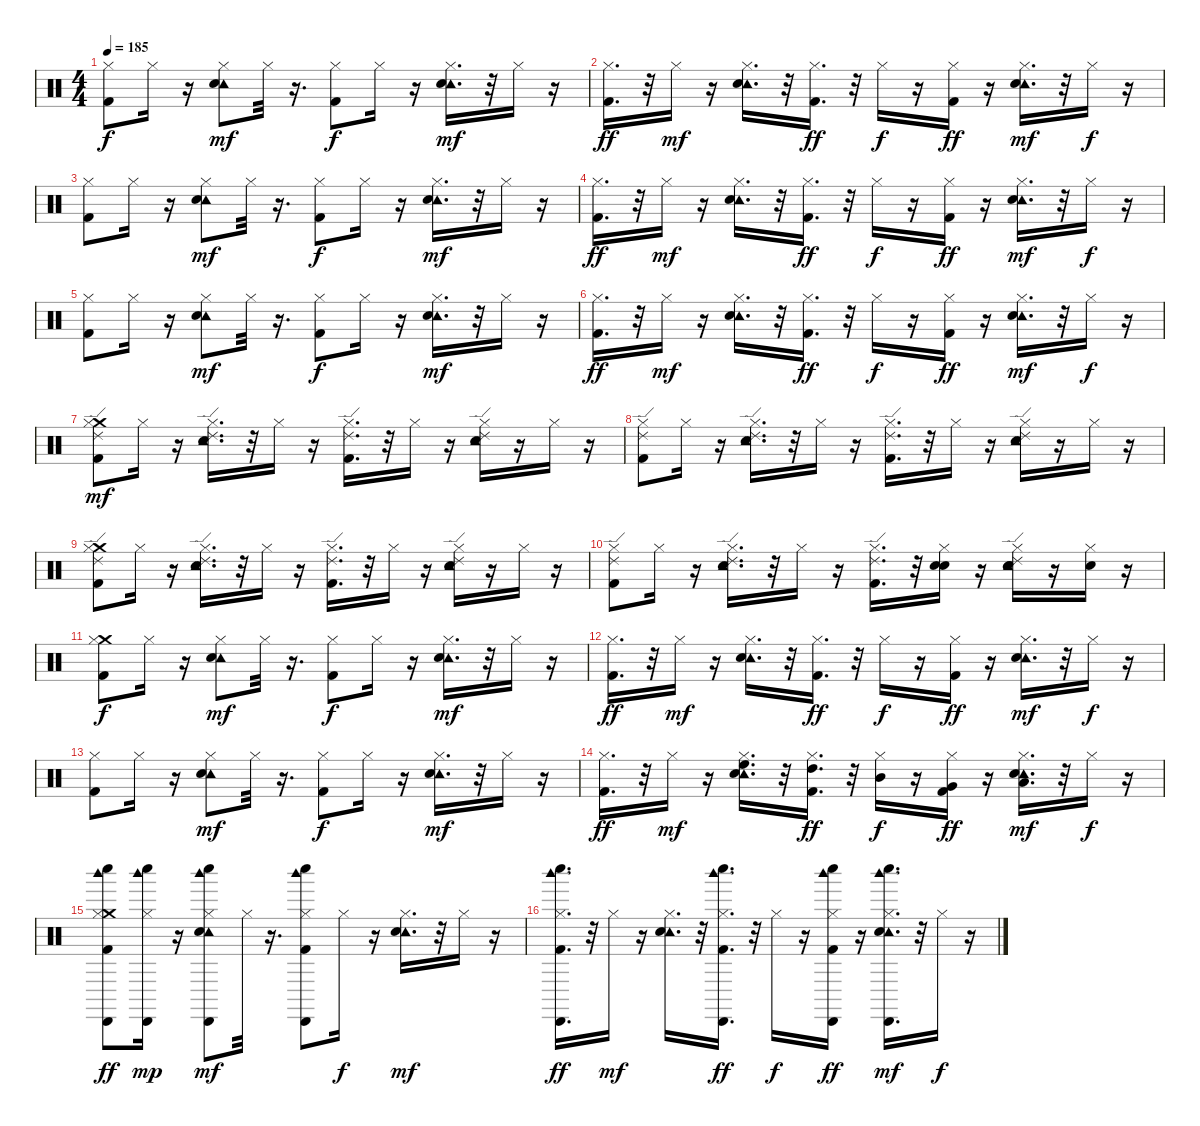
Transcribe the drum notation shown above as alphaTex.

\track "" {instrument percussion}
\staff {score}
\articulation defaults
\ts (4 4)
\tempo 185
\clef neutral
\ks c
("Hi-Hat (closed)" "Kick (hit) 2").8{dy f} "Hi-Hat (closed)".16 r.16 ("Tambourine (hit)" "Hi-Hat (closed)" "Snare (hit) 2").8{dy mf} "Hi-Hat (closed)".32 r.16{d} ("Hi-Hat (closed)" "Kick (hit) 2").8{dy f} "Hi-Hat (closed)".16 r.16 ("Tambourine (hit)" "Hi-Hat (closed)" "Snare (hit) 2").16{d dy mf} r.32 "Hi-Hat (closed)".16 r.16 |
("Hi-Hat (closed)" "Kick (hit) 2").16{d dy ff} r.32 "Hi-Hat (closed)".16{dy mf} r.16 ("Tambourine (hit)" "Hi-Hat (closed)" "Snare (hit) 2").16{d} r.32 ("Hi-Hat (closed)" "Kick (hit) 2").16{d dy ff} r.32 "Hi-Hat (closed)".16{dy f} r.16 ("Hi-Hat (closed)" "Kick (hit) 2").16{dy ff} r.16 ("Tambourine (hit)" "Hi-Hat (closed)" "Snare (hit) 2").16{d dy mf} r.32 "Hi-Hat (closed)".16{dy f} r.16 |
("Hi-Hat (closed)" "Kick (hit) 2").8 "Hi-Hat (closed)".16 r.16 ("Tambourine (hit)" "Hi-Hat (closed)" "Snare (hit) 2").8{dy mf} "Hi-Hat (closed)".32 r.16{d} ("Hi-Hat (closed)" "Kick (hit) 2").8{dy f} "Hi-Hat (closed)".16 r.16 ("Tambourine (hit)" "Hi-Hat (closed)" "Snare (hit) 2").16{d dy mf} r.32 "Hi-Hat (closed)".16 r.16 |
("Hi-Hat (closed)" "Kick (hit) 2").16{d dy ff} r.32 "Hi-Hat (closed)".16{dy mf} r.16 ("Tambourine (hit)" "Hi-Hat (closed)" "Snare (hit) 2").16{d} r.32 ("Hi-Hat (closed)" "Kick (hit) 2").16{d dy ff} r.32 "Hi-Hat (closed)".16{dy f} r.16 ("Hi-Hat (closed)" "Kick (hit) 2").16{dy ff} r.16 ("Tambourine (hit)" "Hi-Hat (closed)" "Snare (hit) 2").16{d dy mf} r.32 "Hi-Hat (closed)".16{dy f} r.16 |
("Hi-Hat (closed)" "Kick (hit) 2").8 "Hi-Hat (closed)".16 r.16 ("Tambourine (hit)" "Hi-Hat (closed)" "Snare (hit) 2").8{dy mf} "Hi-Hat (closed)".32 r.16{d} ("Hi-Hat (closed)" "Kick (hit) 2").8{dy f} "Hi-Hat (closed)".16 r.16 ("Tambourine (hit)" "Hi-Hat (closed)" "Snare (hit) 2").16{d dy mf} r.32 "Hi-Hat (closed)".16 r.16 |
("Hi-Hat (closed)" "Kick (hit) 2").16{d dy ff} r.32 "Hi-Hat (closed)".16{dy mf} r.16 ("Tambourine (hit)" "Hi-Hat (closed)" "Snare (hit) 2").16{d} r.32 ("Hi-Hat (closed)" "Kick (hit) 2").16{d dy ff} r.32 "Hi-Hat (closed)".16{dy f} r.16 ("Hi-Hat (closed)" "Kick (hit) 2").16{dy ff} r.16 ("Tambourine (hit)" "Hi-Hat (closed)" "Snare (hit) 2").16{d dy mf} r.32 "Hi-Hat (closed)".16{dy f} r.16 |
("Crash medium (hit)" "Ride (edge) 2" "Hi-Hat (closed)" "Kick (hit) 2").8{dy mf} "Hi-Hat (closed)".16 r.16 ("Ride (edge) 2" "Hi-Hat (closed)" "Tambourine (hit)" "Snare (hit) 2").16{d} r.32 "Hi-Hat (closed)".16 r.16 ("Ride (edge) 2" "Hi-Hat (closed)" "Kick (hit) 2").16{d} r.32 "Hi-Hat (closed)".16 r.16 ("Ride (edge) 2" "Hi-Hat (closed)" "Tambourine (hit)" "Snare (hit) 2").16 r.16 "Hi-Hat (closed)".16 r.16 |
("Ride (edge) 2" "Hi-Hat (closed)" "Kick (hit) 2").8 "Hi-Hat (closed)".16 r.16 ("Ride (edge) 2" "Hi-Hat (closed)" "Tambourine (hit)" "Snare (hit) 2").16{d} r.32 "Hi-Hat (closed)".16 r.16 ("Ride (edge) 2" "Hi-Hat (closed)" "Kick (hit) 2").16{d} r.32 "Hi-Hat (closed)".16 r.16 ("Ride (edge) 2" "Hi-Hat (closed)" "Tambourine (hit)" "Snare (hit) 2").16 r.16 "Hi-Hat (closed)".16 r.16 |
("Crash medium (hit)" "Ride (edge) 2" "Hi-Hat (closed)" "Kick (hit) 2").8 "Hi-Hat (closed)".16 r.16 ("Ride (edge) 2" "Hi-Hat (closed)" "Tambourine (hit)" "Snare (hit) 2").16{d} r.32 "Hi-Hat (closed)".16 r.16 ("Ride (edge) 2" "Hi-Hat (closed)" "Kick (hit) 2").16{d} r.32 "Hi-Hat (closed)".16 r.16 ("Ride (edge) 2" "Hi-Hat (closed)" "Tambourine (hit)" "Snare (hit) 2").16 r.16 "Hi-Hat (closed)".16 r.16 |
("Ride (edge) 2" "Hi-Hat (closed)" "Kick (hit) 2").8 "Hi-Hat (closed)".16 r.16 ("Ride (edge) 2" "Hi-Hat (closed)" "Tambourine (hit)" "Snare (hit) 2").16{d} r.32 "Hi-Hat (closed)".16 r.16 ("Ride (edge) 2" "Hi-Hat (closed)" "Kick (hit) 2").16{d} r.32 ("Snare (hit) 2" "Electric Snare (hit)" "Hi-Hat (closed)").16 r.16 ("Snare (hit) 2" "Ride (edge) 2" "Hi-Hat (closed)" "Tambourine (hit)" "Snare (hit) 2").16 r.16 ("Snare (hit) 2" "Hi-Hat (closed)").16 r.16 |
("Crash medium (hit)" "Hi-Hat (closed)" "Kick (hit) 2").8{dy f} "Hi-Hat (closed)".16 r.16 ("Tambourine (hit)" "Hi-Hat (closed)" "Snare (hit) 2").8{dy mf} "Hi-Hat (closed)".32 r.16{d} ("Hi-Hat (closed)" "Kick (hit) 2").8{dy f} "Hi-Hat (closed)".16 r.16 ("Tambourine (hit)" "Hi-Hat (closed)" "Snare (hit) 2").16{d dy mf} r.32 "Hi-Hat (closed)".16 r.16 |
("Hi-Hat (closed)" "Kick (hit) 2").16{d dy ff} r.32 "Hi-Hat (closed)".16{dy mf} r.16 ("Tambourine (hit)" "Hi-Hat (closed)" "Snare (hit) 2").16{d} r.32 ("Hi-Hat (closed)" "Kick (hit) 2").16{d dy ff} r.32 "Hi-Hat (closed)".16{dy f} r.16 ("Hi-Hat (closed)" "Kick (hit) 2").16{dy ff} r.16 ("Tambourine (hit)" "Hi-Hat (closed)" "Snare (hit) 2").16{d dy mf} r.32 "Hi-Hat (closed)".16{dy f} r.16 |
("Hi-Hat (closed)" "Kick (hit) 2").8 "Hi-Hat (closed)".16 r.16 ("Tambourine (hit)" "Hi-Hat (closed)" "Snare (hit) 2").8{dy mf} "Hi-Hat (closed)".32 r.16{d} ("Hi-Hat (closed)" "Kick (hit) 2").8{dy f} "Hi-Hat (closed)".16 r.16 ("Tambourine (hit)" "Hi-Hat (closed)" "Snare (hit) 2").16{d dy mf} r.32 "Hi-Hat (closed)".16 r.16 |
("Hi-Hat (closed)" "Kick (hit) 2").16{d dy ff} r.32 "Hi-Hat (closed)".16{dy mf} r.16 ("High Floor Tom (hit)" "Tambourine (hit)" "Hi-Hat (closed)" "Snare (hit) 2").16{d} r.32 ("High Tom (hit)" "Hi-Hat (closed)" "Kick (hit) 2").16{d dy ff} r.32 ("Mid Tom (hit)" "Hi-Hat (closed)").16{dy f} r.16 ("Very Low Tom (hit)" "Hi-Hat (closed)" "Kick (hit) 2").16{dy ff} r.16 ("Low Floor Tom (hit)" "Tambourine (hit)" "Hi-Hat (closed)" "Snare (hit) 2").16{d dy mf} r.32 "Hi-Hat (closed)".16{dy f} r.16 |
("Whistle low (hit)" "Cabasa (hit)" "Woodblock high (hit)" "Crash medium (hit)" "Hi-Hat (closed)" "Kick (hit) 2").8{dy ff} ("Cabasa (hit)" "Whistle low (hit)" "Woodblock high (hit)" "Hi-Hat (closed)").16{dy mp} r.16 ("Cabasa (hit)" "Whistle low (hit)" "Woodblock high (hit)" "Tambourine (hit)" "Hi-Hat (closed)" "Snare (hit) 2").8{dy mf} "Hi-Hat (closed)".32 r.16{d} ("Cabasa (hit)" "Whistle low (hit)" "Woodblock high (hit)" "Hi-Hat (closed)" "Kick (hit) 2").8 "Hi-Hat (closed)".16{dy f} r.16 ("Tambourine (hit)" "Hi-Hat (closed)" "Snare (hit) 2").16{d dy mf} r.32 "Hi-Hat (closed)".16 r.16 |
("Cabasa (hit)" "Whistle low (hit)" "Woodblock high (hit)" "Hi-Hat (closed)" "Kick (hit) 2").16{d dy ff} r.32 "Hi-Hat (closed)".16{dy mf} r.16 ("Tambourine (hit)" "Hi-Hat (closed)" "Snare (hit) 2").16{d} r.32 ("Whistle low (hit)" "Cabasa (hit)" "Woodblock high (hit)" "Hi-Hat (closed)" "Kick (hit) 2").16{d dy ff} r.32 "Hi-Hat (closed)".16{dy f} r.16 ("Cabasa (hit)" "Whistle low (hit)" "Woodblock high (hit)" "Hi-Hat (closed)" "Kick (hit) 2").16{dy ff} r.16 ("Cabasa (hit)" "Whistle low (hit)" "Woodblock high (hit)" "Tambourine (hit)" "Hi-Hat (closed)" "Snare (hit) 2").16{d dy mf} r.32 "Hi-Hat (closed)".16{dy f} r.16
